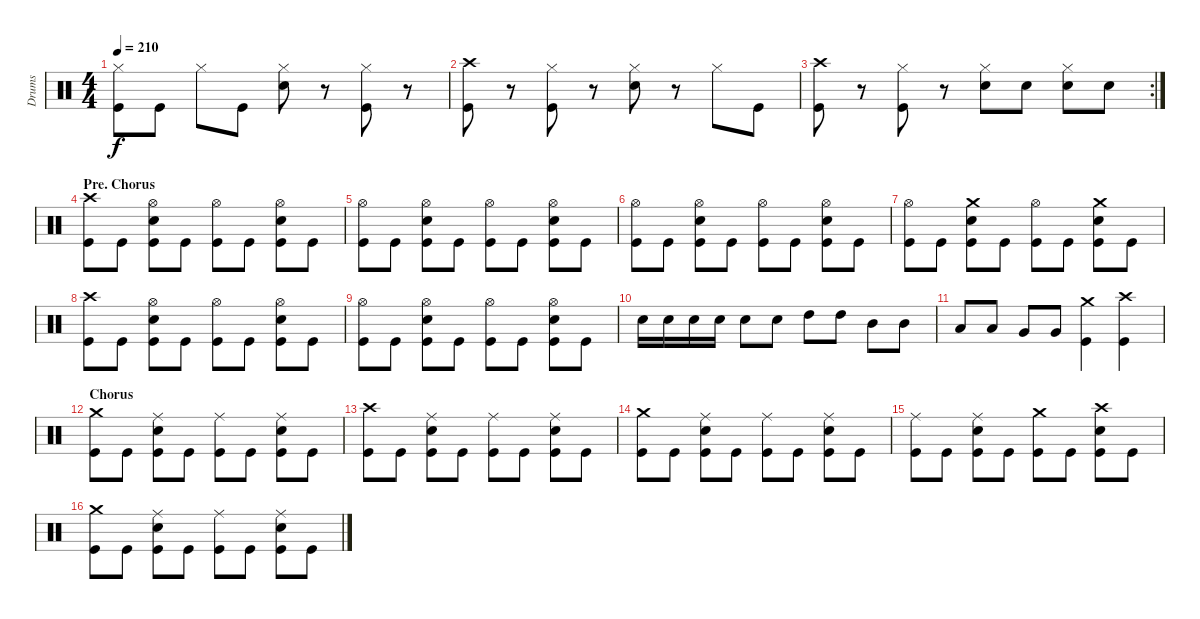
\track ("Drums" "Drums") {instrument percussion}
\staff {score}
\articulation defaults
\ts (4 4)
\tempo 210
\clef neutral
\ks c
("Hi-Hat (closed)" "Kick (hit)").8{dy f} "Kick (hit)".8 "Hi-Hat (closed)".8 "Kick (hit)".8 ("Hi-Hat (closed)" "Electric Snare (hit)").8 r.8 ("Hi-Hat (closed)" "Kick (hit)").8 r.8 |
("Crash high (hit)" "Kick (hit)").8 r.8 ("Hi-Hat (closed)" "Kick (hit)").8 r.8 ("Hi-Hat (closed)" "Electric Snare (hit)").8 r.8 "Hi-Hat (closed)".8 "Kick (hit)".8 |
\rc 2
("Crash high (hit)" "Kick (hit)").8 r.8 ("Hi-Hat (closed)" "Kick (hit)").8 r.8 ("Hi-Hat (closed)" "Electric Snare (hit)").8 "Electric Snare (hit)".8 ("Hi-Hat (closed)" "Electric Snare (hit)").8 "Electric Snare (hit)".8 |
\section ("" "Pre. Chorus")
("Crash high (hit)" "Kick (hit)").8 "Kick (hit)".8 ("Hi-Hat (open)" "Electric Snare (hit)" "Kick (hit)").8 "Kick (hit)".8 ("Hi-Hat (open)" "Kick (hit)").8 "Kick (hit)".8 ("Hi-Hat (open)" "Electric Snare (hit)" "Kick (hit)").8 "Kick (hit)".8 |
("Hi-Hat (open)" "Kick (hit)").8 "Kick (hit)".8 ("Hi-Hat (open)" "Electric Snare (hit)" "Kick (hit)").8 "Kick (hit)".8 ("Hi-Hat (open)" "Kick (hit)").8 "Kick (hit)".8 ("Hi-Hat (open)" "Electric Snare (hit)" "Kick (hit)").8 "Kick (hit)".8 |
("Hi-Hat (open)" "Kick (hit)").8 "Kick (hit)".8 ("Hi-Hat (open)" "Electric Snare (hit)" "Kick (hit)").8 "Kick (hit)".8 ("Hi-Hat (open)" "Kick (hit)").8 "Kick (hit)".8 ("Hi-Hat (open)" "Electric Snare (hit)" "Kick (hit)").8 "Kick (hit)".8 |
("Hi-Hat (open)" "Kick (hit)").8 "Kick (hit)".8 ("Crash medium (hit)" "Electric Snare (hit)" "Kick (hit)").8 "Kick (hit)".8 ("Hi-Hat (open)" "Kick (hit)").8 "Kick (hit)".8 ("Crash medium (hit)" "Electric Snare (hit)" "Kick (hit)").8 "Kick (hit)".8 |
("Crash high (hit)" "Kick (hit)").8 "Kick (hit)".8 ("Hi-Hat (open)" "Electric Snare (hit)" "Kick (hit)").8 "Kick (hit)".8 ("Hi-Hat (open)" "Kick (hit)").8 "Kick (hit)".8 ("Hi-Hat (open)" "Electric Snare (hit)" "Kick (hit)").8 "Kick (hit)".8 |
("Hi-Hat (open)" "Kick (hit)").8 "Kick (hit)".8 ("Hi-Hat (open)" "Electric Snare (hit)" "Kick (hit)").8 "Kick (hit)".8 ("Hi-Hat (open)" "Kick (hit)").8 "Kick (hit)".8 ("Hi-Hat (open)" "Electric Snare (hit)" "Kick (hit)").8 "Kick (hit)".8 |
"Electric Snare (hit)".16 "Electric Snare (hit)".16 "Electric Snare (hit)".16 "Electric Snare (hit)".16 "Electric Snare (hit)".8 "Electric Snare (hit)".8 "High Tom (hit)".8 "High Tom (hit)".8 "Mid Tom (hit)".8 "Mid Tom (hit)".8 |
"Low Tom (hit)".8 "Low Tom (hit)".8 "Very Low Tom (hit)".8 "Very Low Tom (hit)".8 ("Crash medium (hit)" "Kick (hit)").4 ("Crash high (hit)" "Kick (hit)").4 |
\section ("" "Chorus")
("Crash medium (hit)" "Kick (hit)").8 "Kick (hit)".8 ("Ride (middle)" "Electric Snare (hit)" "Kick (hit)").8 "Kick (hit)".8 ("Ride (middle)" "Kick (hit)").8 "Kick (hit)".8 ("Ride (middle)" "Electric Snare (hit)" "Kick (hit)").8 "Kick (hit)".8 |
("Crash high (hit)" "Kick (hit)").8 "Kick (hit)".8 ("Ride (middle)" "Electric Snare (hit)" "Kick (hit)").8 "Kick (hit)".8 ("Ride (middle)" "Kick (hit)").8 "Kick (hit)".8 ("Ride (middle)" "Electric Snare (hit)" "Kick (hit)").8 "Kick (hit)".8 |
("Crash medium (hit)" "Kick (hit)").8 "Kick (hit)".8 ("Ride (middle)" "Electric Snare (hit)" "Kick (hit)").8 "Kick (hit)".8 ("Ride (middle)" "Kick (hit)").8 "Kick (hit)".8 ("Ride (middle)" "Electric Snare (hit)" "Kick (hit)").8 "Kick (hit)".8 |
("Ride (middle)" "Kick (hit)").8 "Kick (hit)".8 ("Ride (middle)" "Electric Snare (hit)" "Kick (hit)").8 "Kick (hit)".8 ("Crash medium (hit)" "Kick (hit)").8 "Kick (hit)".8 ("Crash high (hit)" "Electric Snare (hit)" "Kick (hit)").8 "Kick (hit)".8 |
("Crash medium (hit)" "Kick (hit)").8 "Kick (hit)".8 ("Ride (middle)" "Electric Snare (hit)" "Kick (hit)").8 "Kick (hit)".8 ("Ride (middle)" "Kick (hit)").8 "Kick (hit)".8 ("Ride (middle)" "Electric Snare (hit)" "Kick (hit)").8 "Kick (hit)".8
